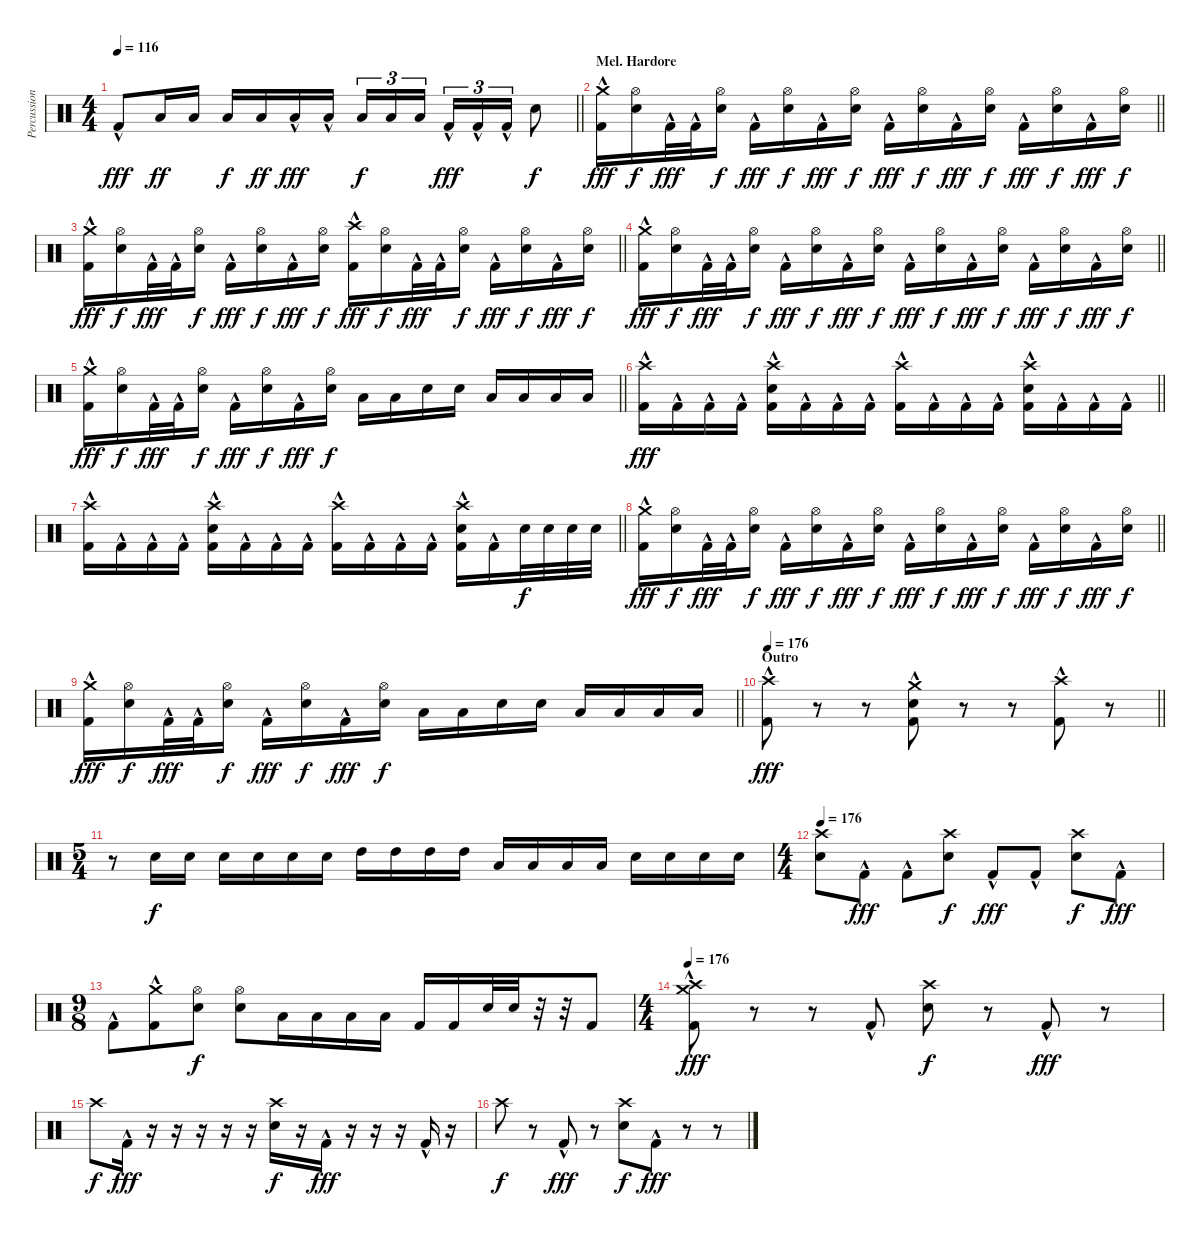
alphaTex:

\track ("Percussion" "Percussion") {instrument percussion}
\staff {score}
\articulation defaults
\ts (4 4)
\tempo 116
\clef neutral
\barLineRight lightlight
\ks c "Kick (hit) 2"{hac}.8{dy fff} "Low Tom (hit)".16{dy ff} "Low Tom (hit)".16 "Low Floor Tom (hit)".16{dy f} "Low Floor Tom (hit)".16{dy ff} "Low Floor Tom (hit)"{hac}.16{dy fff} "Low Floor Tom (hit)"{hac}.16 "Low Floor Tom (hit)".16{tu (3 2) dy f} "Low Floor Tom (hit)".16{tu (3 2)} "Low Floor Tom (hit)".16{tu (3 2) beam splitsecondary} "Kick (hit) 2"{hac}.16{tu (3 2) dy fff} "Kick (hit) 2"{hac}.16{tu (3 2)} "Kick (hit) 2"{hac}.16{tu (3 2)} "Electric Snare (hit)".8{dy f}
|
\section ("" "Mel. Hardore")
\barLineRight lightlight
("Kick (hit) 2"{hac} "Crash medium (hit)").16{dy fff} ("Electric Snare (hit)" "Hi-Hat (open)").16{dy f} "Kick (hit) 2"{hac}.32{dy fff} "Kick (hit) 2"{hac}.32 ("Electric Snare (hit)" "Hi-Hat (open)").16{dy f} "Kick (hit) 2"{hac}.16{dy fff} ("Electric Snare (hit)" "Hi-Hat (open)").16{dy f} "Kick (hit) 2"{hac}.16{dy fff} ("Electric Snare (hit)" "Hi-Hat (open)").16{dy f} "Kick (hit) 2"{hac}.16{dy fff} ("Electric Snare (hit)" "Hi-Hat (open)").16{dy f} "Kick (hit) 2"{hac}.16{dy fff} ("Electric Snare (hit)" "Hi-Hat (open)").16{dy f} "Kick (hit) 2"{hac}.16{dy fff} ("Electric Snare (hit)" "Hi-Hat (open)").16{dy f} "Kick (hit) 2"{hac}.16{dy fff} ("Electric Snare (hit)" "Hi-Hat (open)").16{dy f} |
\barLineRight lightlight
("Kick (hit) 2"{hac} "Crash medium (hit)").16{dy fff} ("Electric Snare (hit)" "Hi-Hat (open)").16{dy f} "Kick (hit) 2"{hac}.32{dy fff} "Kick (hit) 2"{hac}.32 ("Electric Snare (hit)" "Hi-Hat (open)").16{dy f} "Kick (hit) 2"{hac}.16{dy fff} ("Electric Snare (hit)" "Hi-Hat (open)").16{dy f} "Kick (hit) 2"{hac}.16{dy fff} ("Electric Snare (hit)" "Hi-Hat (open)").16{dy f} ("Kick (hit) 2"{hac} "Crash high (hit)").16{dy fff} ("Electric Snare (hit)" "Hi-Hat (open)").16{dy f} "Kick (hit) 2"{hac}.32{dy fff} "Kick (hit) 2"{hac}.32 ("Electric Snare (hit)" "Hi-Hat (open)").16{dy f} "Kick (hit) 2"{hac}.16{dy fff} ("Electric Snare (hit)" "Hi-Hat (open)").16{dy f} "Kick (hit) 2"{hac}.16{dy fff} ("Electric Snare (hit)" "Hi-Hat (open)").16{dy f} |
\barLineRight lightlight
("Kick (hit) 2"{hac} "Crash medium (hit)").16{dy fff} ("Electric Snare (hit)" "Hi-Hat (open)").16{dy f} "Kick (hit) 2"{hac}.32{dy fff} "Kick (hit) 2"{hac}.32 ("Electric Snare (hit)" "Hi-Hat (open)").16{dy f} "Kick (hit) 2"{hac}.16{dy fff} ("Electric Snare (hit)" "Hi-Hat (open)").16{dy f} "Kick (hit) 2"{hac}.16{dy fff} ("Electric Snare (hit)" "Hi-Hat (open)").16{dy f} "Kick (hit) 2"{hac}.16{dy fff} ("Electric Snare (hit)" "Hi-Hat (open)").16{dy f} "Kick (hit) 2"{hac}.16{dy fff} ("Electric Snare (hit)" "Hi-Hat (open)").16{dy f} "Kick (hit) 2"{hac}.16{dy fff} ("Electric Snare (hit)" "Hi-Hat (open)").16{dy f} "Kick (hit) 2"{hac}.16{dy fff} ("Electric Snare (hit)" "Hi-Hat (open)").16{dy f} |
\barLineRight lightlight
("Kick (hit) 2"{hac} "Crash medium (hit)").16{dy fff} ("Electric Snare (hit)" "Hi-Hat (open)").16{dy f} "Kick (hit) 2"{hac}.32{dy fff} "Kick (hit) 2"{hac}.32 ("Electric Snare (hit)" "Hi-Hat (open)").16{dy f} "Kick (hit) 2"{hac}.16{dy fff} ("Electric Snare (hit)" "Hi-Hat (open)").16{dy f} "Kick (hit) 2"{hac}.16{dy fff} ("Electric Snare (hit)" "Hi-Hat (open)").16{dy f} "Low Tom (hit)".16 "Low Tom (hit)".16 "Electric Snare (hit)".16 "Electric Snare (hit)".16 "Low Tom (hit)".16 "Low Tom (hit)".16 "Low Floor Tom (hit)".16 "Low Floor Tom (hit)".16 |
\barLineRight lightlight
("Kick (hit) 2"{hac} "Crash high (hit)").16{dy fff} "Kick (hit) 2"{hac}.16 "Kick (hit) 2"{hac}.16 "Kick (hit) 2"{hac}.16 ("Kick (hit) 2"{hac} "Crash high (hit)" "Electric Snare (hit)").16 "Kick (hit) 2"{hac}.16 "Kick (hit) 2"{hac}.16 "Kick (hit) 2"{hac}.16 ("Kick (hit) 2"{hac} "Crash high (hit)").16 "Kick (hit) 2"{hac}.16 "Kick (hit) 2"{hac}.16 "Kick (hit) 2"{hac}.16 ("Kick (hit) 2"{hac} "Crash high (hit)" "Electric Snare (hit)").16 "Kick (hit) 2"{hac}.16 "Kick (hit) 2"{hac}.16 "Kick (hit) 2"{hac}.16 |
\barLineRight lightlight
("Kick (hit) 2"{hac} "Crash high (hit)").16 "Kick (hit) 2"{hac}.16 "Kick (hit) 2"{hac}.16 "Kick (hit) 2"{hac}.16 ("Kick (hit) 2"{hac} "Crash high (hit)" "Electric Snare (hit)").16 "Kick (hit) 2"{hac}.16 "Kick (hit) 2"{hac}.16 "Kick (hit) 2"{hac}.16 ("Kick (hit) 2"{hac} "Crash high (hit)").16 "Kick (hit) 2"{hac}.16 "Kick (hit) 2"{hac}.16 "Kick (hit) 2"{hac}.16 ("Kick (hit) 2"{hac} "Crash high (hit)" "Electric Snare (hit)").16 "Kick (hit) 2"{hac}.16 "Electric Snare (hit)".32{dy f} "Electric Snare (hit)".32 "Electric Snare (hit)".32 "Electric Snare (hit)".32 |
\barLineRight lightlight
("Kick (hit) 2"{hac} "Crash medium (hit)").16{dy fff} ("Electric Snare (hit)" "Hi-Hat (open)").16{dy f} "Kick (hit) 2"{hac}.32{dy fff} "Kick (hit) 2"{hac}.32 ("Electric Snare (hit)" "Hi-Hat (open)").16{dy f} "Kick (hit) 2"{hac}.16{dy fff} ("Electric Snare (hit)" "Hi-Hat (open)").16{dy f} "Kick (hit) 2"{hac}.16{dy fff} ("Electric Snare (hit)" "Hi-Hat (open)").16{dy f} "Kick (hit) 2"{hac}.16{dy fff} ("Electric Snare (hit)" "Hi-Hat (open)").16{dy f} "Kick (hit) 2"{hac}.16{dy fff} ("Electric Snare (hit)" "Hi-Hat (open)").16{dy f} "Kick (hit) 2"{hac}.16{dy fff} ("Electric Snare (hit)" "Hi-Hat (open)").16{dy f} "Kick (hit) 2"{hac}.16{dy fff} ("Electric Snare (hit)" "Hi-Hat (open)").16{dy f} |
\barLineRight lightlight
("Kick (hit) 2"{hac} "Crash medium (hit)").16{dy fff} ("Electric Snare (hit)" "Hi-Hat (open)").16{dy f} "Kick (hit) 2"{hac}.32{dy fff} "Kick (hit) 2"{hac}.32 ("Electric Snare (hit)" "Hi-Hat (open)").16{dy f} "Kick (hit) 2"{hac}.16{dy fff} ("Electric Snare (hit)" "Hi-Hat (open)").16{dy f} "Kick (hit) 2"{hac}.16{dy fff} ("Electric Snare (hit)" "Hi-Hat (open)").16{dy f} "Low Tom (hit)".16 "Low Tom (hit)".16 "Electric Snare (hit)".16 "Electric Snare (hit)".16 "Low Tom (hit)".16 "Low Tom (hit)".16 "Low Floor Tom (hit)".16 "Low Floor Tom (hit)".16 |
\section ("" "Outro")
\tempo 176
\barLineRight lightlight
("Crash high (hit)" "Kick (hit) 2"{hac}).8{dy fff} r.8 r.8 ("Crash medium (hit)" "Electric Snare (hit)" "Kick (hit) 2"{hac}).8 r.8 r.8 ("Crash high (hit)" "Kick (hit) 2"{hac}).8 r.8 |
\ts (5 4)
r.8 "Electric Snare (hit)".16{dy f} "Electric Snare (hit)".16 "Electric Snare (hit)".16 "Electric Snare (hit)".16 "Electric Snare (hit)".16 "Electric Snare (hit)".16 "High Tom (hit)".16 "High Tom (hit)".16 "High Tom (hit)".16 "High Tom (hit)".16 "Low Tom (hit)".16 "Low Tom (hit)".16 "Low Tom (hit)".16 "Low Tom (hit)".16 "Electric Snare (hit)".16 "Electric Snare (hit)".16 "Electric Snare (hit)".16 "Electric Snare (hit)".16 |
\ts (4 4)
\tempo 176
("Crash high (hit)" "Electric Snare (hit)").8 "Kick (hit) 2"{hac}.8{dy fff} "Kick (hit) 2"{hac}.8 ("Crash high (hit)" "Electric Snare (hit)").8{dy f} "Kick (hit) 2"{hac}.8{dy fff} "Kick (hit) 2"{hac}.8 ("Crash high (hit)" "Electric Snare (hit)").8{dy f} "Kick (hit) 2"{hac}.8{dy fff} |
\ts (9 8)
"Kick (hit) 2"{hac}.8 ("Crash medium (hit)" "Kick (hit) 2"{hac}).8 ("Hi-Hat (open)" "Electric Snare (hit)").8{dy f} ("Hi-Hat (open)" "Electric Snare (hit)").8 "Low Tom (hit)".16 "Low Tom (hit)".16 "Low Floor Tom (hit)".16 "Low Floor Tom (hit)".16 "Kick (hit) 2".16 "Kick (hit) 2".16 "Electric Snare (hit)".32 "Electric Snare (hit)".32 r.32 r.32 "Kick (hit) 2".8 |
\ts (4 4)
\tempo 176
("Crash high (hit)" "Crash medium (hit)" "Kick (hit) 2"{hac}).8{dy fff} r.8 r.8 "Kick (hit) 2"{hac}.8 ("Crash high (hit)" "Electric Snare (hit)").8{dy f} r.8 "Kick (hit) 2"{hac}.8{dy fff} r.8 |
"Crash high (hit)".8{dy f} "Kick (hit) 2"{hac}.16{dy fff} r.16 r.16 r.16 r.16 r.16 ("Crash high (hit)" "Electric Snare (hit)").16{dy f} r.16 "Kick (hit) 2"{hac}.16{dy fff} r.16 r.16 r.16 "Kick (hit) 2"{hac}.16 r.16 |
"Crash high (hit)".8{dy f} r.8 "Kick (hit) 2"{hac}.8{dy fff} r.8 ("Crash high (hit)" "Electric Snare (hit)").8{dy f} "Kick (hit) 2"{hac}.8{dy fff} r.8 r.8
